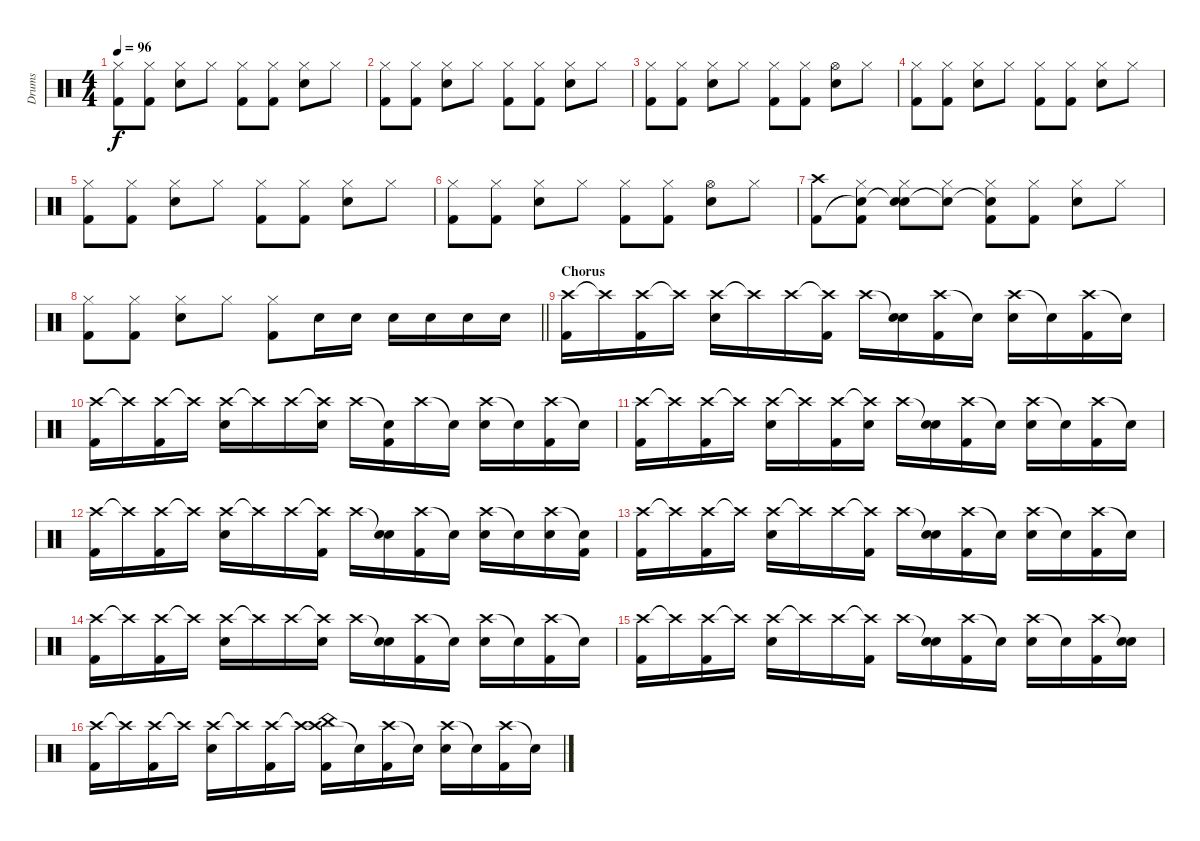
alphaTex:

\track ("Drums" "Drums") {instrument percussion}
\staff {score}
\articulation defaults
\ts (4 4)
\tempo 96
\clef neutral
\ks aminor
("Hi-Hat (closed)" "Kick (hit) 2").8{dy f} ("Hi-Hat (closed)" "Kick (hit) 2").8 ("Hi-Hat (closed)" "Snare (hit) 2").8 "Hi-Hat (closed)".8 ("Hi-Hat (closed)" "Kick (hit) 2").8 ("Hi-Hat (closed)" "Kick (hit) 2").8 ("Hi-Hat (closed)" "Snare (hit) 2").8 "Hi-Hat (closed)".8 |
("Hi-Hat (closed)" "Kick (hit) 2").8 ("Hi-Hat (closed)" "Kick (hit) 2").8 ("Hi-Hat (closed)" "Snare (hit) 2").8 "Hi-Hat (closed)".8 ("Hi-Hat (closed)" "Kick (hit) 2").8 ("Hi-Hat (closed)" "Kick (hit) 2").8 ("Hi-Hat (closed)" "Snare (hit) 2").8 "Hi-Hat (closed)".8 |
("Hi-Hat (closed)" "Kick (hit) 2").8 ("Hi-Hat (closed)" "Kick (hit) 2").8 ("Hi-Hat (closed)" "Snare (hit) 2").8 "Hi-Hat (closed)".8 ("Hi-Hat (closed)" "Kick (hit) 2").8 ("Hi-Hat (closed)" "Kick (hit) 2").8 ("Hi-Hat (open)" "Snare (hit) 2").8 "Hi-Hat (closed)".8 |
("Hi-Hat (closed)" "Kick (hit) 2").8 ("Hi-Hat (closed)" "Kick (hit) 2").8 ("Hi-Hat (closed)" "Snare (hit) 2").8 "Hi-Hat (closed)".8 ("Hi-Hat (closed)" "Kick (hit) 2").8 ("Hi-Hat (closed)" "Kick (hit) 2").8 ("Hi-Hat (closed)" "Snare (hit) 2").8 "Hi-Hat (closed)".8 |
("Hi-Hat (closed)" "Kick (hit) 2").8 ("Hi-Hat (closed)" "Kick (hit) 2").8 ("Hi-Hat (closed)" "Snare (hit) 2").8 "Hi-Hat (closed)".8 ("Hi-Hat (closed)" "Kick (hit) 2").8 ("Hi-Hat (closed)" "Kick (hit) 2").8 ("Hi-Hat (closed)" "Snare (hit) 2").8 "Hi-Hat (closed)".8 |
("Hi-Hat (closed)" "Kick (hit) 2").8 ("Hi-Hat (closed)" "Kick (hit) 2").8 ("Hi-Hat (closed)" "Snare (hit) 2").8 "Hi-Hat (closed)".8 ("Hi-Hat (closed)" "Kick (hit) 2").8 ("Hi-Hat (closed)" "Kick (hit) 2").8 ("Hi-Hat (open)" "Snare (hit) 2").8 "Hi-Hat (closed)".8 |
("Crash high (hit)" "Kick (hit) 2").8 ("Hi-Hat (closed)" "Snare (hit)"{t} "Kick (hit) 2").8 ("Hi-Hat (closed)" "Snare (hit)"{t} "Snare (hit) 2").8 ("Hi-Hat (closed)" "Snare (hit)"{t}).8 ("Hi-Hat (closed)" "Snare (hit)"{t} "Kick (hit) 2").8 ("Hi-Hat (closed)" "Kick (hit) 2").8 ("Hi-Hat (closed)" "Snare (hit) 2").8 "Hi-Hat (closed)".8 |
\barLineRight lightlight
("Hi-Hat (closed)" "Kick (hit) 2").8 ("Hi-Hat (closed)" "Kick (hit) 2").8 ("Hi-Hat (closed)" "Snare (hit) 2").8 "Hi-Hat (closed)".8 ("Hi-Hat (closed)" "Kick (hit) 2").8 "Snare (hit) 2".16 "Snare (hit) 2".16 "Snare (hit) 2".16 "Snare (hit) 2".16 "Snare (hit) 2".16 "Snare (hit) 2".16 |
\section ("" "Chorus")
("Crash high (hit)" "Kick (hit) 2").16 "Crash high (hit)"{t}.16 ("Crash high (hit)" "Kick (hit) 2").16 "Crash high (hit)"{t}.16 ("Crash high (hit)" "Snare (hit) 2").16 "Crash high (hit)"{t}.16 "Crash high (hit)".16 ("Crash high (hit)"{t} "Kick (hit) 2").16 "Crash high (hit)".16 ("Snare (hit)"{t} "Snare (hit) 2").16 ("Crash high (hit)" "Kick (hit) 2").16 "Snare (hit)"{t}.16 ("Crash high (hit)" "Snare (hit) 2").16 "Snare (hit)"{t}.16 ("Crash high (hit)" "Kick (hit) 2").16 "Snare (hit)"{t}.16 |
("Crash high (hit)" "Kick (hit) 2").16 "Crash high (hit)"{t}.16 ("Crash high (hit)" "Kick (hit) 2").16 "Crash high (hit)"{t}.16 ("Crash high (hit)" "Snare (hit) 2").16 "Crash high (hit)"{t}.16 "Crash high (hit)".16 ("Crash high (hit)"{t} "Snare (hit) 2").16 "Crash high (hit)".16 ("Snare (hit)"{t} "Kick (hit) 2").16 "Crash high (hit)".16 "Snare (hit)"{t}.16 ("Crash high (hit)" "Snare (hit) 2").16 "Snare (hit)"{t}.16 ("Crash high (hit)" "Kick (hit) 2").16 "Snare (hit)"{t}.16 |
("Crash high (hit)" "Kick (hit) 2").16 "Crash high (hit)"{t}.16 ("Crash high (hit)" "Kick (hit) 2").16 "Crash high (hit)"{t}.16 ("Crash high (hit)" "Snare (hit) 2").16 "Crash high (hit)"{t}.16 ("Crash high (hit)" "Kick (hit) 2").16 ("Crash high (hit)"{t} "Snare (hit) 2").16 "Crash high (hit)".16 ("Snare (hit)"{t} "Snare (hit) 2").16 ("Crash high (hit)" "Kick (hit) 2").16 "Snare (hit)"{t}.16 ("Crash high (hit)" "Snare (hit) 2").16 "Snare (hit)"{t}.16 ("Crash high (hit)" "Kick (hit) 2").16 "Snare (hit)"{t}.16 |
("Crash high (hit)" "Kick (hit) 2").16 "Crash high (hit)"{t}.16 ("Crash high (hit)" "Kick (hit) 2").16 "Crash high (hit)"{t}.16 ("Crash high (hit)" "Snare (hit) 2").16 "Crash high (hit)"{t}.16 "Crash high (hit)".16 ("Crash high (hit)"{t} "Kick (hit) 2").16 "Crash high (hit)".16 ("Snare (hit)"{t} "Snare (hit) 2").16 ("Crash high (hit)" "Kick (hit) 2").16 "Snare (hit)"{t}.16 ("Crash high (hit)" "Snare (hit) 2").16 "Snare (hit)"{t}.16 ("Crash high (hit)" "Snare (hit) 2").16 ("Snare (hit)"{t} "Kick (hit) 2").16 |
("Crash high (hit)" "Kick (hit) 2").16 "Crash high (hit)"{t}.16 ("Crash high (hit)" "Kick (hit) 2").16 "Crash high (hit)"{t}.16 ("Crash high (hit)" "Snare (hit) 2").16 "Crash high (hit)"{t}.16 "Crash high (hit)".16 ("Crash high (hit)"{t} "Kick (hit) 2").16 "Crash high (hit)".16 ("Snare (hit)"{t} "Snare (hit) 2").16 ("Crash high (hit)" "Kick (hit) 2").16 "Snare (hit)"{t}.16 ("Crash high (hit)" "Snare (hit) 2").16 "Snare (hit)"{t}.16 ("Crash high (hit)" "Kick (hit) 2").16 "Snare (hit)"{t}.16 |
("Crash high (hit)" "Kick (hit) 2").16 "Crash high (hit)"{t}.16 ("Crash high (hit)" "Kick (hit) 2").16 "Crash high (hit)"{t}.16 ("Crash high (hit)" "Snare (hit) 2").16 "Crash high (hit)"{t}.16 "Crash high (hit)".16 ("Crash high (hit)"{t} "Snare (hit) 2").16 "Crash high (hit)".16 ("Snare (hit)"{t} "Snare (hit) 2").16 ("Crash high (hit)" "Kick (hit) 2").16 "Snare (hit)"{t}.16 ("Crash high (hit)" "Snare (hit) 2").16 "Snare (hit)"{t}.16 ("Crash high (hit)" "Kick (hit) 2").16 "Snare (hit)"{t}.16 |
("Crash high (hit)" "Kick (hit) 2").16 "Crash high (hit)"{t}.16 ("Crash high (hit)" "Kick (hit) 2").16 "Crash high (hit)"{t}.16 ("Crash high (hit)" "Snare (hit) 2").16 "Crash high (hit)"{t}.16 "Crash high (hit)".16 ("Crash high (hit)"{t} "Kick (hit) 2").16 "Crash high (hit)".16 ("Snare (hit)"{t} "Snare (hit) 2").16 ("Crash high (hit)" "Kick (hit) 2").16 "Snare (hit)"{t}.16 ("Crash high (hit)" "Snare (hit) 2").16 "Snare (hit)"{t}.16 ("Crash high (hit)" "Kick (hit) 2").16 ("Snare (hit)"{t} "Snare (hit) 2").16 |
("Crash high (hit)" "Kick (hit) 2").16 "Crash high (hit)"{t}.16 ("Crash high (hit)" "Kick (hit) 2").16 "Crash high (hit)"{t}.16 ("Crash high (hit)" "Snare (hit) 2").16 "Crash high (hit)"{t}.16 ("Crash high (hit)" "Kick (hit) 2").16 "Crash high (hit)"{t}.16 ("Crash high (hit)" "China (hit)" "Kick (hit) 2").16 "Snare (hit)"{t}.16 ("Crash high (hit)" "Kick (hit) 2").16 "Snare (hit)"{t}.16 ("Crash high (hit)" "Snare (hit) 2").16 "Snare (hit)"{t}.16 ("Crash high (hit)" "Kick (hit) 2").16 "Snare (hit)"{t}.16
